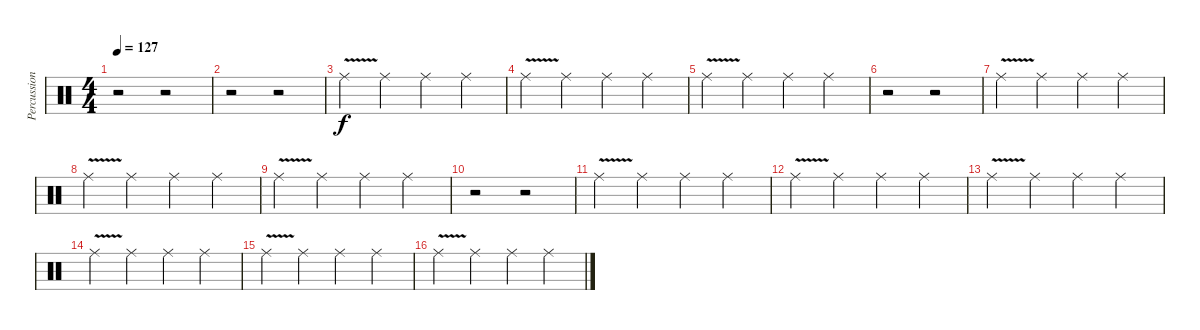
\track ("Percussion" "Percussion") {instrument percussion}
\staff {score}
\articulation defaults
\ts (4 4)
\tempo 127
\clef neutral
\ks c
r.2{dy f} r.2 |
r.2 r.2 |
"Ride (middle)"{v}.4 "Ride (middle)".4 "Ride (middle)".4 "Ride (middle)".4 |
"Ride (middle)"{v}.4 "Ride (middle)".4 "Ride (middle)".4 "Ride (middle)".4 |
"Ride (middle)"{v}.4 "Ride (middle)".4 "Ride (middle)".4 "Ride (middle)".4 |
r.2 r.2 |
"Ride (middle)"{v}.4 "Ride (middle)".4 "Ride (middle)".4 "Ride (middle)".4 |
"Ride (middle)"{v}.4 "Ride (middle)".4 "Ride (middle)".4 "Ride (middle)".4 |
"Ride (middle)"{v}.4 "Ride (middle)".4 "Ride (middle)".4 "Ride (middle)".4 |
r.2 r.2 |
"Ride (middle)"{v}.4 "Ride (middle)".4 "Ride (middle)".4 "Ride (middle)".4 |
"Ride (middle)"{v}.4 "Ride (middle)".4 "Ride (middle)".4 "Ride (middle)".4 |
"Ride (middle)"{v}.4 "Ride (middle)".4 "Ride (middle)".4 "Ride (middle)".4 |
"Ride (middle)"{v}.4 "Ride (middle)".4 "Ride (middle)".4 "Ride (middle)".4 |
"Ride (middle)"{v}.4 "Ride (middle)".4 "Ride (middle)".4 "Ride (middle)".4 |
"Ride (middle)"{v}.4 "Ride (middle)".4 "Ride (middle)".4 "Ride (middle)".4
